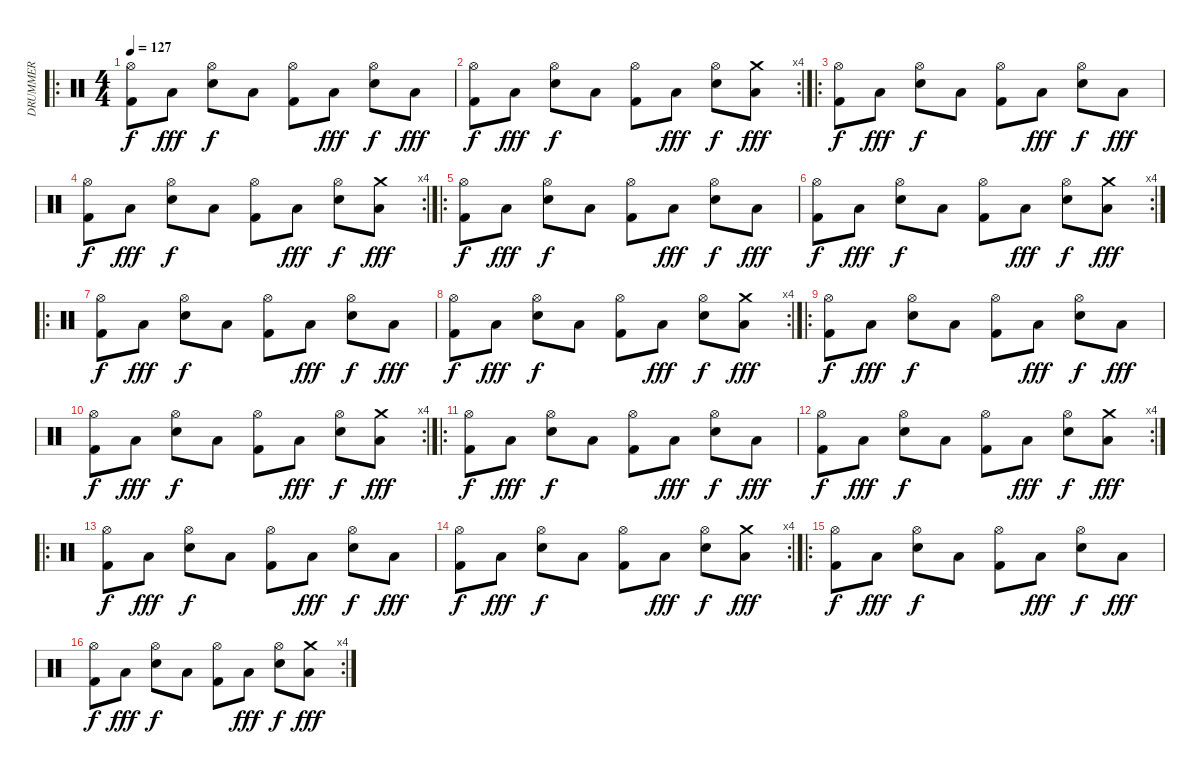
\track ("DRUMMER" "DRUMMER") {instrument percussion}
\staff {score}
\articulation defaults
\ro
\ts (4 4)
\tempo 127
\clef neutral
\ks c
("Hi-Hat (open)" "Kick (hit) 2").8{dy f} "Low Floor Tom (hit)".8{dy fff} ("Hi-Hat (open)" "Snare (hit) 2").8{dy f} "Low Floor Tom (hit)".8 ("Hi-Hat (open)" "Kick (hit) 2").8 "Low Floor Tom (hit)".8{dy fff} ("Hi-Hat (open)" "Snare (hit) 2").8{dy f} "Low Floor Tom (hit)".8{dy fff} |
\rc 4
("Hi-Hat (open)" "Kick (hit) 2").8{dy f} "Low Floor Tom (hit)".8{dy fff} ("Hi-Hat (open)" "Snare (hit) 2").8{dy f} "Low Floor Tom (hit)".8 ("Hi-Hat (open)" "Kick (hit) 2").8 "Low Floor Tom (hit)".8{dy fff} ("Hi-Hat (open)" "Snare (hit) 2").8{dy f} ("Crash medium (hit)" "Low Floor Tom (hit)").8{dy fff} |
\ro
("Hi-Hat (open)" "Kick (hit) 2").8{dy f} "Low Floor Tom (hit)".8{dy fff} ("Hi-Hat (open)" "Snare (hit) 2").8{dy f} "Low Floor Tom (hit)".8 ("Hi-Hat (open)" "Kick (hit) 2").8 "Low Floor Tom (hit)".8{dy fff} ("Hi-Hat (open)" "Snare (hit) 2").8{dy f} "Low Floor Tom (hit)".8{dy fff} |
\rc 4
("Hi-Hat (open)" "Kick (hit) 2").8{dy f} "Low Floor Tom (hit)".8{dy fff} ("Hi-Hat (open)" "Snare (hit) 2").8{dy f} "Low Floor Tom (hit)".8 ("Hi-Hat (open)" "Kick (hit) 2").8 "Low Floor Tom (hit)".8{dy fff} ("Hi-Hat (open)" "Snare (hit) 2").8{dy f} ("Crash medium (hit)" "Low Floor Tom (hit)").8{dy fff} |
\ro
("Hi-Hat (open)" "Kick (hit) 2").8{dy f} "Low Floor Tom (hit)".8{dy fff} ("Hi-Hat (open)" "Snare (hit) 2").8{dy f} "Low Floor Tom (hit)".8 ("Hi-Hat (open)" "Kick (hit) 2").8 "Low Floor Tom (hit)".8{dy fff} ("Hi-Hat (open)" "Snare (hit) 2").8{dy f} "Low Floor Tom (hit)".8{dy fff} |
\rc 4
("Hi-Hat (open)" "Kick (hit) 2").8{dy f} "Low Floor Tom (hit)".8{dy fff} ("Hi-Hat (open)" "Snare (hit) 2").8{dy f} "Low Floor Tom (hit)".8 ("Hi-Hat (open)" "Kick (hit) 2").8 "Low Floor Tom (hit)".8{dy fff} ("Hi-Hat (open)" "Snare (hit) 2").8{dy f} ("Crash medium (hit)" "Low Floor Tom (hit)").8{dy fff} |
\ro
("Hi-Hat (open)" "Kick (hit) 2").8{dy f} "Low Floor Tom (hit)".8{dy fff} ("Hi-Hat (open)" "Snare (hit) 2").8{dy f} "Low Floor Tom (hit)".8 ("Hi-Hat (open)" "Kick (hit) 2").8 "Low Floor Tom (hit)".8{dy fff} ("Hi-Hat (open)" "Snare (hit) 2").8{dy f} "Low Floor Tom (hit)".8{dy fff} |
\rc 4
("Hi-Hat (open)" "Kick (hit) 2").8{dy f} "Low Floor Tom (hit)".8{dy fff} ("Hi-Hat (open)" "Snare (hit) 2").8{dy f} "Low Floor Tom (hit)".8 ("Hi-Hat (open)" "Kick (hit) 2").8 "Low Floor Tom (hit)".8{dy fff} ("Hi-Hat (open)" "Snare (hit) 2").8{dy f} ("Crash medium (hit)" "Low Floor Tom (hit)").8{dy fff} |
\ro
("Hi-Hat (open)" "Kick (hit) 2").8{dy f} "Low Floor Tom (hit)".8{dy fff} ("Hi-Hat (open)" "Snare (hit) 2").8{dy f} "Low Floor Tom (hit)".8 ("Hi-Hat (open)" "Kick (hit) 2").8 "Low Floor Tom (hit)".8{dy fff} ("Hi-Hat (open)" "Snare (hit) 2").8{dy f} "Low Floor Tom (hit)".8{dy fff} |
\rc 4
("Hi-Hat (open)" "Kick (hit) 2").8{dy f} "Low Floor Tom (hit)".8{dy fff} ("Hi-Hat (open)" "Snare (hit) 2").8{dy f} "Low Floor Tom (hit)".8 ("Hi-Hat (open)" "Kick (hit) 2").8 "Low Floor Tom (hit)".8{dy fff} ("Hi-Hat (open)" "Snare (hit) 2").8{dy f} ("Crash medium (hit)" "Low Floor Tom (hit)").8{dy fff} |
\ro
("Hi-Hat (open)" "Kick (hit) 2").8{dy f} "Low Floor Tom (hit)".8{dy fff} ("Hi-Hat (open)" "Snare (hit) 2").8{dy f} "Low Floor Tom (hit)".8 ("Hi-Hat (open)" "Kick (hit) 2").8 "Low Floor Tom (hit)".8{dy fff} ("Hi-Hat (open)" "Snare (hit) 2").8{dy f} "Low Floor Tom (hit)".8{dy fff} |
\rc 4
("Hi-Hat (open)" "Kick (hit) 2").8{dy f} "Low Floor Tom (hit)".8{dy fff} ("Hi-Hat (open)" "Snare (hit) 2").8{dy f} "Low Floor Tom (hit)".8 ("Hi-Hat (open)" "Kick (hit) 2").8 "Low Floor Tom (hit)".8{dy fff} ("Hi-Hat (open)" "Snare (hit) 2").8{dy f} ("Crash medium (hit)" "Low Floor Tom (hit)").8{dy fff} |
\ro
("Hi-Hat (open)" "Kick (hit) 2").8{dy f} "Low Floor Tom (hit)".8{dy fff} ("Hi-Hat (open)" "Snare (hit) 2").8{dy f} "Low Floor Tom (hit)".8 ("Hi-Hat (open)" "Kick (hit) 2").8 "Low Floor Tom (hit)".8{dy fff} ("Hi-Hat (open)" "Snare (hit) 2").8{dy f} "Low Floor Tom (hit)".8{dy fff} |
\rc 4
("Hi-Hat (open)" "Kick (hit) 2").8{dy f} "Low Floor Tom (hit)".8{dy fff} ("Hi-Hat (open)" "Snare (hit) 2").8{dy f} "Low Floor Tom (hit)".8 ("Hi-Hat (open)" "Kick (hit) 2").8 "Low Floor Tom (hit)".8{dy fff} ("Hi-Hat (open)" "Snare (hit) 2").8{dy f} ("Crash medium (hit)" "Low Floor Tom (hit)").8{dy fff} |
\ro
("Hi-Hat (open)" "Kick (hit) 2").8{dy f} "Low Floor Tom (hit)".8{dy fff} ("Hi-Hat (open)" "Snare (hit) 2").8{dy f} "Low Floor Tom (hit)".8 ("Hi-Hat (open)" "Kick (hit) 2").8 "Low Floor Tom (hit)".8{dy fff} ("Hi-Hat (open)" "Snare (hit) 2").8{dy f} "Low Floor Tom (hit)".8{dy fff} |
\rc 4
("Hi-Hat (open)" "Kick (hit) 2").8{dy f} "Low Floor Tom (hit)".8{dy fff} ("Hi-Hat (open)" "Snare (hit) 2").8{dy f} "Low Floor Tom (hit)".8 ("Hi-Hat (open)" "Kick (hit) 2").8 "Low Floor Tom (hit)".8{dy fff} ("Hi-Hat (open)" "Snare (hit) 2").8{dy f} ("Crash medium (hit)" "Low Floor Tom (hit)").8{dy fff}
